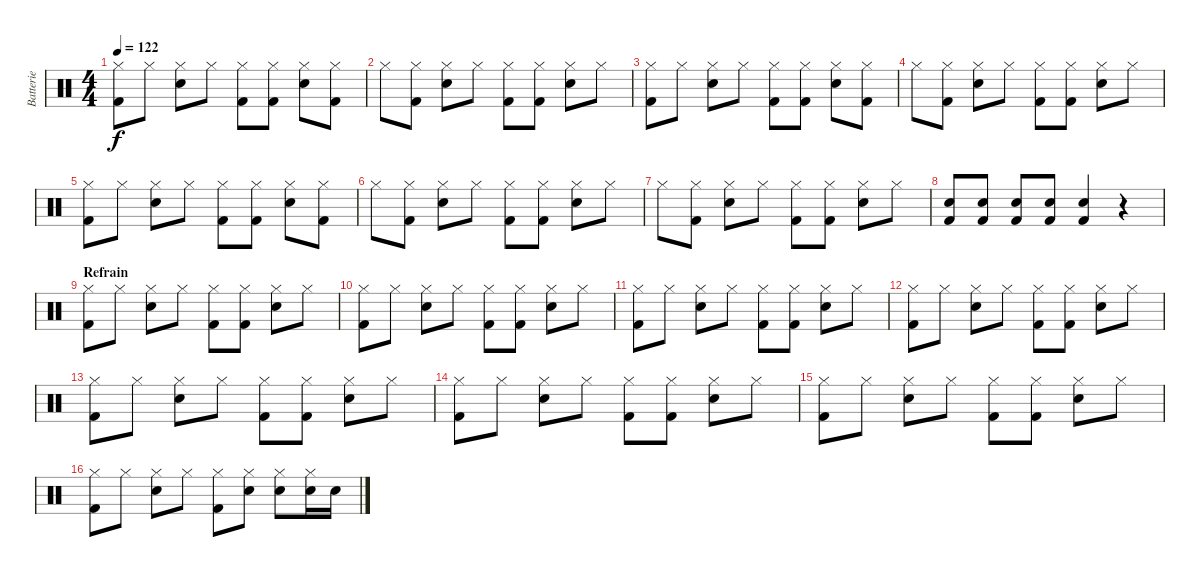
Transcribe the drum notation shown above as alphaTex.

\track ("Batterie" "Batterie") {instrument percussion}
\staff {score}
\articulation defaults
\ts (4 4)
\tempo 122
\clef neutral
\ks c
("Hi-Hat (closed)" "Kick (hit) 2").8{dy f} "Hi-Hat (closed)".8 ("Hi-Hat (closed)" "Snare (hit) 2").8 "Hi-Hat (closed)".8 ("Hi-Hat (closed)" "Kick (hit) 2").8 ("Hi-Hat (closed)" "Kick (hit) 2").8 ("Hi-Hat (closed)" "Snare (hit) 2").8 ("Hi-Hat (closed)" "Kick (hit) 2").8 |
"Hi-Hat (closed)".8 ("Hi-Hat (closed)" "Kick (hit) 2").8 ("Hi-Hat (closed)" "Snare (hit) 2").8 "Hi-Hat (closed)".8 ("Hi-Hat (closed)" "Kick (hit) 2").8 ("Hi-Hat (closed)" "Kick (hit) 2").8 ("Hi-Hat (closed)" "Snare (hit) 2").8 "Hi-Hat (closed)".8 |
("Hi-Hat (closed)" "Kick (hit) 2").8 "Hi-Hat (closed)".8 ("Hi-Hat (closed)" "Snare (hit) 2").8 "Hi-Hat (closed)".8 ("Hi-Hat (closed)" "Kick (hit) 2").8 ("Hi-Hat (closed)" "Kick (hit) 2").8 ("Hi-Hat (closed)" "Snare (hit) 2").8 ("Hi-Hat (closed)" "Kick (hit) 2").8 |
"Hi-Hat (closed)".8 ("Hi-Hat (closed)" "Kick (hit) 2").8 ("Hi-Hat (closed)" "Snare (hit) 2").8 "Hi-Hat (closed)".8 ("Hi-Hat (closed)" "Kick (hit) 2").8 ("Hi-Hat (closed)" "Kick (hit) 2").8 ("Hi-Hat (closed)" "Snare (hit) 2").8 "Hi-Hat (closed)".8 |
("Hi-Hat (closed)" "Kick (hit) 2").8 "Hi-Hat (closed)".8 ("Hi-Hat (closed)" "Snare (hit) 2").8 "Hi-Hat (closed)".8 ("Hi-Hat (closed)" "Kick (hit) 2").8 ("Hi-Hat (closed)" "Kick (hit) 2").8 ("Hi-Hat (closed)" "Snare (hit) 2").8 ("Hi-Hat (closed)" "Kick (hit) 2").8 |
"Hi-Hat (closed)".8 ("Hi-Hat (closed)" "Kick (hit) 2").8 ("Hi-Hat (closed)" "Snare (hit) 2").8 "Hi-Hat (closed)".8 ("Hi-Hat (closed)" "Kick (hit) 2").8 ("Hi-Hat (closed)" "Kick (hit) 2").8 ("Hi-Hat (closed)" "Snare (hit) 2").8 "Hi-Hat (closed)".8 |
"Hi-Hat (closed)".8 ("Hi-Hat (closed)" "Kick (hit) 2").8 ("Hi-Hat (closed)" "Snare (hit) 2").8 "Hi-Hat (closed)".8 ("Hi-Hat (closed)" "Kick (hit) 2").8 ("Hi-Hat (closed)" "Kick (hit) 2").8 ("Hi-Hat (closed)" "Snare (hit) 2").8 "Hi-Hat (closed)".8 |
("Snare (hit) 2" "Kick (hit) 2").8 ("Snare (hit) 2" "Kick (hit) 2").8 ("Snare (hit) 2" "Kick (hit) 2").8 ("Snare (hit) 2" "Kick (hit) 2").8 ("Snare (hit) 2" "Kick (hit) 2").4 r.4 |
\section ("" "Refrain")
("Hi-Hat (closed)" "Kick (hit) 2").8 "Hi-Hat (closed)".8 ("Hi-Hat (closed)" "Snare (hit) 2").8 "Hi-Hat (closed)".8 ("Hi-Hat (closed)" "Kick (hit) 2").8 ("Hi-Hat (closed)" "Kick (hit) 2").8 ("Hi-Hat (closed)" "Snare (hit) 2").8 "Hi-Hat (closed)".8 |
("Hi-Hat (closed)" "Kick (hit) 2").8 "Hi-Hat (closed)".8 ("Hi-Hat (closed)" "Snare (hit) 2").8 "Hi-Hat (closed)".8 ("Hi-Hat (closed)" "Kick (hit) 2").8 ("Hi-Hat (closed)" "Kick (hit) 2").8 ("Hi-Hat (closed)" "Snare (hit) 2").8 "Hi-Hat (closed)".8 |
("Hi-Hat (closed)" "Kick (hit) 2").8 "Hi-Hat (closed)".8 ("Hi-Hat (closed)" "Snare (hit) 2").8 "Hi-Hat (closed)".8 ("Hi-Hat (closed)" "Kick (hit) 2").8 ("Hi-Hat (closed)" "Kick (hit) 2").8 ("Hi-Hat (closed)" "Snare (hit) 2").8 "Hi-Hat (closed)".8 |
("Hi-Hat (closed)" "Kick (hit) 2").8 "Hi-Hat (closed)".8 ("Hi-Hat (closed)" "Snare (hit) 2").8 "Hi-Hat (closed)".8 ("Hi-Hat (closed)" "Kick (hit) 2").8 ("Hi-Hat (closed)" "Kick (hit) 2").8 ("Hi-Hat (closed)" "Snare (hit) 2").8 "Hi-Hat (closed)".8 |
("Hi-Hat (closed)" "Kick (hit) 2").8 "Hi-Hat (closed)".8 ("Hi-Hat (closed)" "Snare (hit) 2").8 "Hi-Hat (closed)".8 ("Hi-Hat (closed)" "Kick (hit) 2").8 ("Hi-Hat (closed)" "Kick (hit) 2").8 ("Hi-Hat (closed)" "Snare (hit) 2").8 "Hi-Hat (closed)".8 |
("Hi-Hat (closed)" "Kick (hit) 2").8 "Hi-Hat (closed)".8 ("Hi-Hat (closed)" "Snare (hit) 2").8 "Hi-Hat (closed)".8 ("Hi-Hat (closed)" "Kick (hit) 2").8 ("Hi-Hat (closed)" "Kick (hit) 2").8 ("Hi-Hat (closed)" "Snare (hit) 2").8 "Hi-Hat (closed)".8 |
("Hi-Hat (closed)" "Kick (hit) 2").8 "Hi-Hat (closed)".8 ("Hi-Hat (closed)" "Snare (hit) 2").8 "Hi-Hat (closed)".8 ("Hi-Hat (closed)" "Kick (hit) 2").8 ("Hi-Hat (closed)" "Kick (hit) 2").8 ("Hi-Hat (closed)" "Snare (hit) 2").8 "Hi-Hat (closed)".8 |
("Hi-Hat (closed)" "Kick (hit) 2").8 "Hi-Hat (closed)".8 ("Hi-Hat (closed)" "Snare (hit) 2").8 "Hi-Hat (closed)".8 ("Hi-Hat (closed)" "Kick (hit) 2").8 ("Hi-Hat (closed)" "Snare (hit) 2").8 ("Hi-Hat (closed)" "Snare (hit) 2").8 ("Hi-Hat (closed)" "Snare (hit) 2").16 "Snare (hit) 2".16
